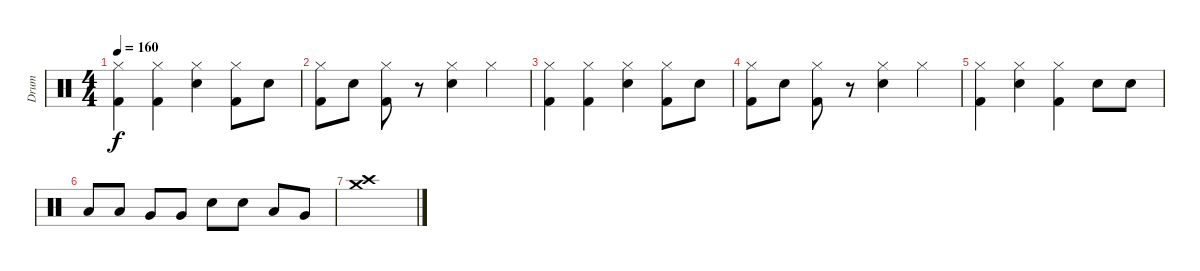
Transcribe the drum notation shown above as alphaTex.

\track ("Drum" "Drum") {instrument percussion}
\staff {score}
\articulation defaults
\ts (4 4)
\tempo 160
\clef neutral
\ks c
("Hi-Hat (closed)" "Kick (hit) 2").4{dy f} ("Hi-Hat (closed)" "Kick (hit) 2").4 ("Hi-Hat (closed)" "Electric Snare (hit)").4 ("Hi-Hat (closed)" "Kick (hit) 2").8 "Electric Snare (hit)".8 |
("Hi-Hat (closed)" "Kick (hit) 2").8 "Electric Snare (hit)".8 ("Hi-Hat (closed)" "Kick (hit) 2").8 r.8 ("Hi-Hat (closed)" "Electric Snare (hit)").4 "Hi-Hat (closed)".4 |
("Hi-Hat (closed)" "Kick (hit) 2").4 ("Hi-Hat (closed)" "Kick (hit) 2").4 ("Hi-Hat (closed)" "Electric Snare (hit)").4 ("Hi-Hat (closed)" "Kick (hit) 2").8 "Electric Snare (hit)".8 |
("Hi-Hat (closed)" "Kick (hit) 2").8 "Electric Snare (hit)".8 ("Hi-Hat (closed)" "Kick (hit) 2").8 r.8 ("Hi-Hat (closed)" "Electric Snare (hit)").4 "Hi-Hat (closed)".4 |
("Hi-Hat (closed)" "Kick (hit) 2").4 ("Hi-Hat (closed)" "Electric Snare (hit)").4 ("Hi-Hat (closed)" "Kick (hit) 2").4 "Electric Snare (hit)".8 "Electric Snare (hit)".8 |
"Low Floor Tom (hit)".8 "Low Floor Tom (hit)".8 "Very Low Tom (hit)".8 "Very Low Tom (hit)".8 "Electric Snare (hit)".8 "Electric Snare (hit)".8 "Low Floor Tom (hit)".8 "Very Low Tom (hit)".8 |
("Crash high (hit)" "Crash medium (hit)").1
